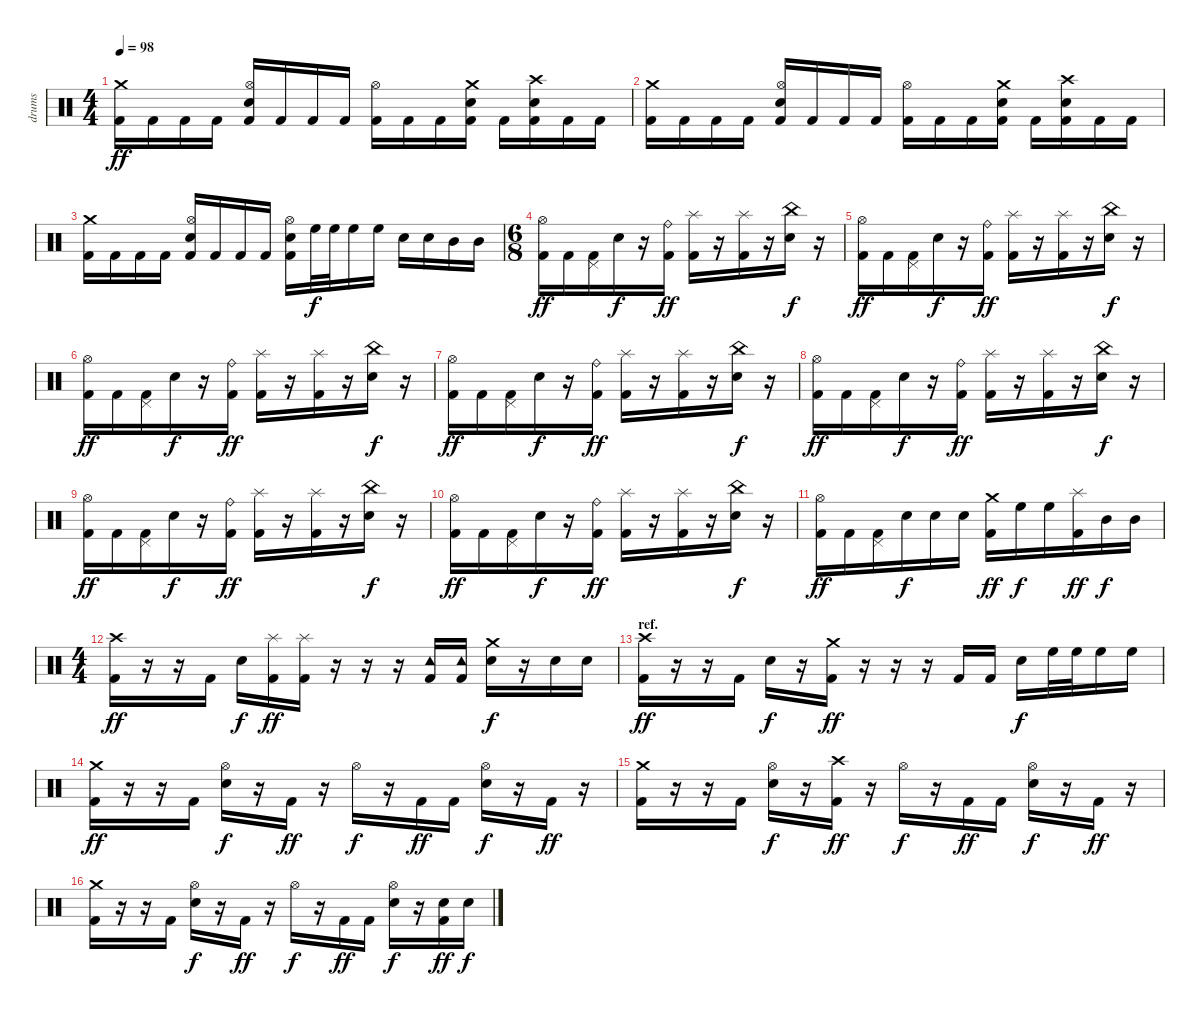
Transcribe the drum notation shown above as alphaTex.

\track ("drums" "drums") {instrument percussion}
\staff {score}
\articulation defaults
\ts (4 4)
\tempo 98
\clef neutral
\ks c
("Crash medium (hit)" "Kick (hit) 2").16{dy ff} "Kick (hit) 2".16 "Kick (hit) 2".16 "Kick (hit) 2".16 ("Hi-Hat (open)" "Electric Snare (hit)" "Kick (hit) 2").16 "Kick (hit) 2".16 "Kick (hit) 2".16 "Kick (hit) 2".16 ("Hi-Hat (open)" "Kick (hit) 2").16 "Kick (hit) 2".16 "Kick (hit) 2".16 ("Crash medium (hit)" "Electric Snare (hit)" "Kick (hit) 2").16 "Kick (hit) 2".16 ("Crash high (hit)" "Electric Snare (hit)" "Kick (hit) 2").16 "Kick (hit) 2".16 "Kick (hit) 2".16 |
("Crash medium (hit)" "Kick (hit) 2").16 "Kick (hit) 2".16 "Kick (hit) 2".16 "Kick (hit) 2".16 ("Hi-Hat (open)" "Electric Snare (hit)" "Kick (hit) 2").16 "Kick (hit) 2".16 "Kick (hit) 2".16 "Kick (hit) 2".16 ("Hi-Hat (open)" "Kick (hit) 2").16 "Kick (hit) 2".16 "Kick (hit) 2".16 ("Crash medium (hit)" "Electric Snare (hit)" "Kick (hit) 2").16 "Kick (hit) 2".16 ("Crash high (hit)" "Electric Snare (hit)" "Kick (hit) 2").16 "Kick (hit) 2".16 "Kick (hit) 2".16 |
("Crash medium (hit)" "Kick (hit) 2").16 "Kick (hit) 2".16 "Kick (hit) 2".16 "Kick (hit) 2".16 ("Hi-Hat (open)" "Electric Snare (hit)" "Kick (hit) 2").16 "Kick (hit) 2".16 "Kick (hit) 2".16 "Kick (hit) 2".16 ("Hi-Hat (open)" "Electric Snare (hit)" "Kick (hit) 2").16 "High Floor Tom (hit)".32{dy f} "High Floor Tom (hit)".32 "High Floor Tom (hit)".16 "High Floor Tom (hit)".16 "Electric Snare (hit)".16 "Electric Snare (hit)".16 "Mid Tom (hit)".16 "Mid Tom (hit)".16 |
\ts (6 8)
("Hi-Hat (open)" "Kick (hit) 2").16{dy ff} "Kick (hit) 2".16 ("Pedal Hi-Hat (hit)" "Kick (hit) 2").16 "Electric Snare (hit)".16{dy f} r.16 ("Ride (bell)" "Kick (hit) 2").16{dy ff} ("Splash (hit)" "Kick (hit) 2").16 r.16 ("Splash (hit)" "Kick (hit) 2").16 r.16 ("China (hit)" "Electric Snare (hit)").16{dy f} r.16 |
("Hi-Hat (open)" "Kick (hit) 2").16{dy ff} "Kick (hit) 2".16 ("Pedal Hi-Hat (hit)" "Kick (hit) 2").16 "Electric Snare (hit)".16{dy f} r.16 ("Ride (bell)" "Kick (hit) 2").16{dy ff} ("Splash (hit)" "Kick (hit) 2").16 r.16 ("Splash (hit)" "Kick (hit) 2").16 r.16 ("China (hit)" "Electric Snare (hit)").16{dy f} r.16 |
("Hi-Hat (open)" "Kick (hit) 2").16{dy ff} "Kick (hit) 2".16 ("Pedal Hi-Hat (hit)" "Kick (hit) 2").16 "Electric Snare (hit)".16{dy f} r.16 ("Ride (bell)" "Kick (hit) 2").16{dy ff} ("Splash (hit)" "Kick (hit) 2").16 r.16 ("Splash (hit)" "Kick (hit) 2").16 r.16 ("China (hit)" "Electric Snare (hit)").16{dy f} r.16 |
("Hi-Hat (open)" "Kick (hit) 2").16{dy ff} "Kick (hit) 2".16 ("Pedal Hi-Hat (hit)" "Kick (hit) 2").16 "Electric Snare (hit)".16{dy f} r.16 ("Ride (bell)" "Kick (hit) 2").16{dy ff} ("Splash (hit)" "Kick (hit) 2").16 r.16 ("Splash (hit)" "Kick (hit) 2").16 r.16 ("China (hit)" "Electric Snare (hit)").16{dy f} r.16 |
("Hi-Hat (open)" "Kick (hit) 2").16{dy ff} "Kick (hit) 2".16 ("Pedal Hi-Hat (hit)" "Kick (hit) 2").16 "Electric Snare (hit)".16{dy f} r.16 ("Ride (bell)" "Kick (hit) 2").16{dy ff} ("Splash (hit)" "Kick (hit) 2").16 r.16 ("Splash (hit)" "Kick (hit) 2").16 r.16 ("China (hit)" "Electric Snare (hit)").16{dy f} r.16 |
("Hi-Hat (open)" "Kick (hit) 2").16{dy ff} "Kick (hit) 2".16 ("Pedal Hi-Hat (hit)" "Kick (hit) 2").16 "Electric Snare (hit)".16{dy f} r.16 ("Ride (bell)" "Kick (hit) 2").16{dy ff} ("Splash (hit)" "Kick (hit) 2").16 r.16 ("Splash (hit)" "Kick (hit) 2").16 r.16 ("China (hit)" "Electric Snare (hit)").16{dy f} r.16 |
("Hi-Hat (open)" "Kick (hit) 2").16{dy ff} "Kick (hit) 2".16 ("Pedal Hi-Hat (hit)" "Kick (hit) 2").16 "Electric Snare (hit)".16{dy f} r.16 ("Ride (bell)" "Kick (hit) 2").16{dy ff} ("Splash (hit)" "Kick (hit) 2").16 r.16 ("Splash (hit)" "Kick (hit) 2").16 r.16 ("China (hit)" "Electric Snare (hit)").16{dy f} r.16 |
("Hi-Hat (open)" "Kick (hit) 2").16{dy ff} "Kick (hit) 2".16 ("Pedal Hi-Hat (hit)" "Kick (hit) 2").16 "Electric Snare (hit)".16{dy f} "Electric Snare (hit)".16 "Electric Snare (hit)".16 ("Crash medium (hit)" "Kick (hit) 2").16{dy ff} "High Floor Tom (hit)".16{dy f} "High Floor Tom (hit)".16 ("Splash (hit)" "Kick (hit) 2").16{dy ff} "Mid Tom (hit)".16{dy f} "Mid Tom (hit)".16 |
\ts (4 4)
("Crash high (hit)" "Kick (hit) 2").16{dy ff} r.16 r.16 "Kick (hit) 2".16 "Electric Snare (hit)".16{dy f} ("Splash (hit)" "Kick (hit) 2").16{dy ff} ("Splash (hit)" "Kick (hit) 2").16 r.16 r.16 r.16 ("Tambourine (hit)" "Kick (hit) 2").16 ("Tambourine (hit)" "Kick (hit) 2").16 ("Crash medium (hit)" "Electric Snare (hit)").16{dy f} r.16 "Electric Snare (hit)".16 "Electric Snare (hit)".16 |
\section ("" "ref.")
("Crash high (hit)" "Kick (hit) 2").16{dy ff} r.16 r.16 "Kick (hit) 2".16 "Electric Snare (hit)".16{dy f} r.16 ("Crash medium (hit)" "Kick (hit) 2").16{dy ff} r.16 r.16 r.16 "Kick (hit) 2".16 "Kick (hit) 2".16 "Electric Snare (hit)".16{dy f} "High Floor Tom (hit)".32 "High Floor Tom (hit)".32 "High Floor Tom (hit)".16 "High Floor Tom (hit)".16 |
("Crash medium (hit)" "Kick (hit) 2").16{dy ff} r.16 r.16 "Kick (hit) 2".16 ("Hi-Hat (open)" "Electric Snare (hit)").16{dy f} r.16 "Kick (hit) 2".16{dy ff} r.16 "Hi-Hat (open)".16{dy f} r.16 "Kick (hit) 2".16{dy ff} "Kick (hit) 2".16 ("Hi-Hat (open)" "Electric Snare (hit)").16{dy f} r.16 "Kick (hit) 2".16{dy ff} r.16 |
("Crash medium (hit)" "Kick (hit) 2").16 r.16 r.16 "Kick (hit) 2".16 ("Hi-Hat (open)" "Electric Snare (hit)").16{dy f} r.16 ("Crash high (hit)" "Kick (hit) 2").16{dy ff} r.16 "Hi-Hat (open)".16{dy f} r.16 "Kick (hit) 2".16{dy ff} "Kick (hit) 2".16 ("Hi-Hat (open)" "Electric Snare (hit)").16{dy f} r.16 "Kick (hit) 2".16{dy ff} r.16 |
("Crash medium (hit)" "Kick (hit) 2").16 r.16 r.16 "Kick (hit) 2".16 ("Hi-Hat (open)" "Electric Snare (hit)").16{dy f} r.16 "Kick (hit) 2".16{dy ff} r.16 "Hi-Hat (open)".16{dy f} r.16 "Kick (hit) 2".16{dy ff} "Kick (hit) 2".16 ("Hi-Hat (open)" "Electric Snare (hit)").16{dy f} r.16 ("Electric Snare (hit)" "Kick (hit) 2").16{dy ff} "Electric Snare (hit)".16{dy f}
